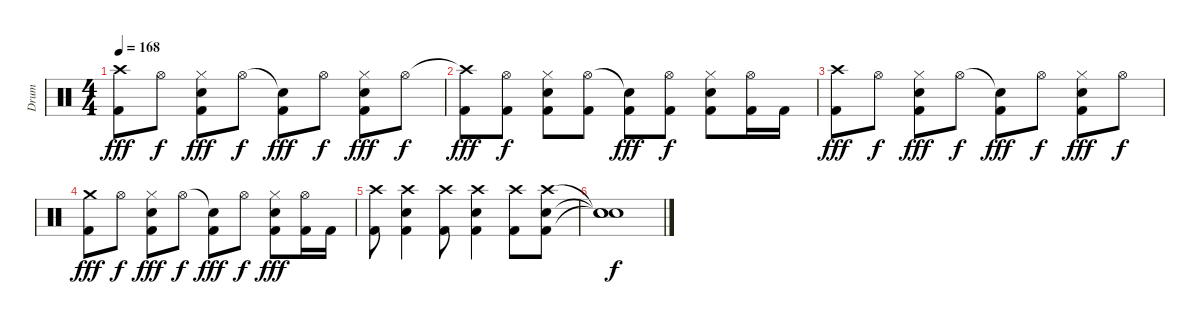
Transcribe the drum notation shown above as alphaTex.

\track ("Drum" "Drum") {instrument percussion}
\staff {score}
\articulation defaults
\ts (4 4)
\tempo 168
\clef neutral
\ks c
("Crash high (hit)"{t} "Kick (hit) 2").8{dy fff} "Hi-Hat (open)".8{dy f} ("Hi-Hat (closed)" "Snare (hit) 2" "Kick (hit) 2").8{dy fff} "Hi-Hat (open)".8{dy f} ("Snare (hit)"{t} "Kick (hit) 2").8{dy fff} "Hi-Hat (open)".8{dy f} ("Hi-Hat (closed)" "Snare (hit) 2" "Kick (hit) 2").8{dy fff} "Hi-Hat (open)".8{dy f} |
("Crash high (hit)"{t} "Kick (hit) 2").8{dy fff} ("Hi-Hat (open)" "Kick (hit) 2").8{dy f} ("Hi-Hat (closed)" "Snare (hit) 2" "Kick (hit) 2").8 ("Hi-Hat (open)" "Kick (hit) 2").8 ("Snare (hit)"{t} "Kick (hit) 2").8{dy fff} ("Hi-Hat (open)" "Kick (hit) 2").8{dy f} ("Hi-Hat (closed)" "Snare (hit) 2" "Kick (hit) 2").8 ("Hi-Hat (open)" "Kick (hit) 2").16 "Kick (hit) 2".16 |
("Crash high (hit)" "Kick (hit) 2").8{dy fff} "Hi-Hat (open)".8{dy f} ("Hi-Hat (closed)" "Snare (hit) 2" "Kick (hit) 2").8{dy fff} "Hi-Hat (open)".8{dy f} ("Snare (hit)"{t} "Kick (hit) 2").8{dy fff} "Hi-Hat (open)".8{dy f} ("Hi-Hat (closed)" "Snare (hit) 2" "Kick (hit) 2").8{dy fff} "Hi-Hat (open)".8{dy f} |
("Crash medium (hit)" "Kick (hit) 2").8{dy fff} "Hi-Hat (open)".8{dy f} ("Hi-Hat (closed)" "Snare (hit) 2" "Kick (hit) 2").8{dy fff} "Hi-Hat (open)".8{dy f} ("Snare (hit)"{t} "Kick (hit) 2").8{dy fff} "Hi-Hat (open)".8{dy f} ("Hi-Hat (closed)" "Snare (hit) 2" "Kick (hit) 2").8{dy fff} ("Hi-Hat (open)" "Kick (hit) 2").16 "Kick (hit) 2".16 |
("Crash high (hit)" "Kick (hit) 2").8 ("Crash high (hit)" "Snare (hit) 2" "Kick (hit) 2").4 ("Crash high (hit)" "Kick (hit) 2").8 ("Crash high (hit)" "Snare (hit) 2" "Kick (hit) 2").4 ("Crash high (hit)" "Kick (hit) 2").8 ("Crash high (hit)" "Snare (hit) 2" "Kick (hit) 2").8 |
("Snare (hit)"{t} "Snare (hit)"{t} "Snare (hit)"{t}).1{dy f}
